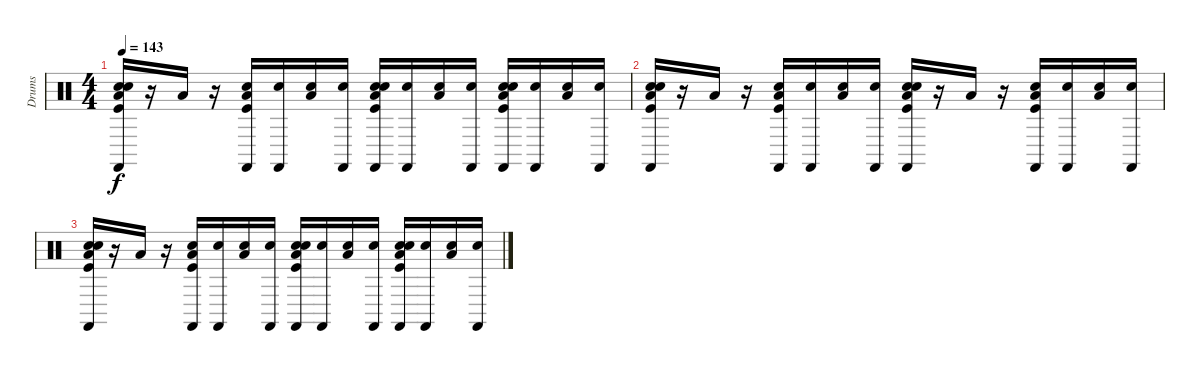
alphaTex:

\track ("Drums" "Drums") {instrument percussion}
\staff {score}
\articulation defaults
\ts (4 4)
\tempo 143
\clef neutral
\ks c
("Snare (hit)" "Low Tom (hit)" "Electric Snare (hit)" "Kick (hit)" "Castanets (hit)").16{dy f} r.16 "Low Tom (hit)".16 r.16 ("Low Tom (hit)" "Electric Snare (hit)" "Kick (hit)" "Castanets (hit)").16 ("Snare (hit)" "Castanets (hit)").16 ("Snare (hit)" "Low Tom (hit)").16 ("Snare (hit)" "Castanets (hit)").16 ("Snare (hit)" "Low Tom (hit)" "Electric Snare (hit)" "Kick (hit)" "Castanets (hit)").16 ("Snare (hit)" "Castanets (hit)").16 ("Snare (hit)" "Low Tom (hit)").16 ("Snare (hit)" "Castanets (hit)").16 ("Snare (hit)" "Low Tom (hit)" "Electric Snare (hit)" "Kick (hit)" "Castanets (hit)").16 ("Snare (hit)" "Castanets (hit)").16 ("Snare (hit)" "Low Tom (hit)").16 ("Snare (hit)" "Castanets (hit)").16 |
("Snare (hit)" "Low Tom (hit)" "Electric Snare (hit)" "Kick (hit)" "Castanets (hit)").16 r.16 "Low Tom (hit)".16 r.16 ("Low Tom (hit)" "Electric Snare (hit)" "Kick (hit)" "Castanets (hit)").16 ("Snare (hit)" "Castanets (hit)").16 ("Snare (hit)" "Low Tom (hit)").16 ("Snare (hit)" "Castanets (hit)").16 ("Snare (hit)" "Low Tom (hit)" "Electric Snare (hit)" "Kick (hit)" "Castanets (hit)").16 r.16 "Low Tom (hit)".16 r.16 ("Low Tom (hit)" "Electric Snare (hit)" "Kick (hit)" "Castanets (hit)").16 ("Snare (hit)" "Castanets (hit)").16 ("Snare (hit)" "Low Tom (hit)").16 ("Snare (hit)" "Castanets (hit)").16 |
("Snare (hit)" "Low Tom (hit)" "Electric Snare (hit)" "Kick (hit)" "Castanets (hit)").16 r.16 "Low Tom (hit)".16 r.16 ("Low Tom (hit)" "Electric Snare (hit)" "Kick (hit)" "Castanets (hit)").16 ("Snare (hit)" "Castanets (hit)").16 ("Snare (hit)" "Low Tom (hit)").16 ("Snare (hit)" "Castanets (hit)").16 ("Snare (hit)" "Low Tom (hit)" "Electric Snare (hit)" "Kick (hit)" "Castanets (hit)").16 ("Snare (hit)" "Castanets (hit)").16 ("Snare (hit)" "Low Tom (hit)").16 ("Snare (hit)" "Castanets (hit)").16 ("Snare (hit)" "Low Tom (hit)" "Electric Snare (hit)" "Kick (hit)" "Castanets (hit)").16 ("Snare (hit)" "Castanets (hit)").16 ("Snare (hit)" "Low Tom (hit)").16 ("Snare (hit)" "Castanets (hit)").16
